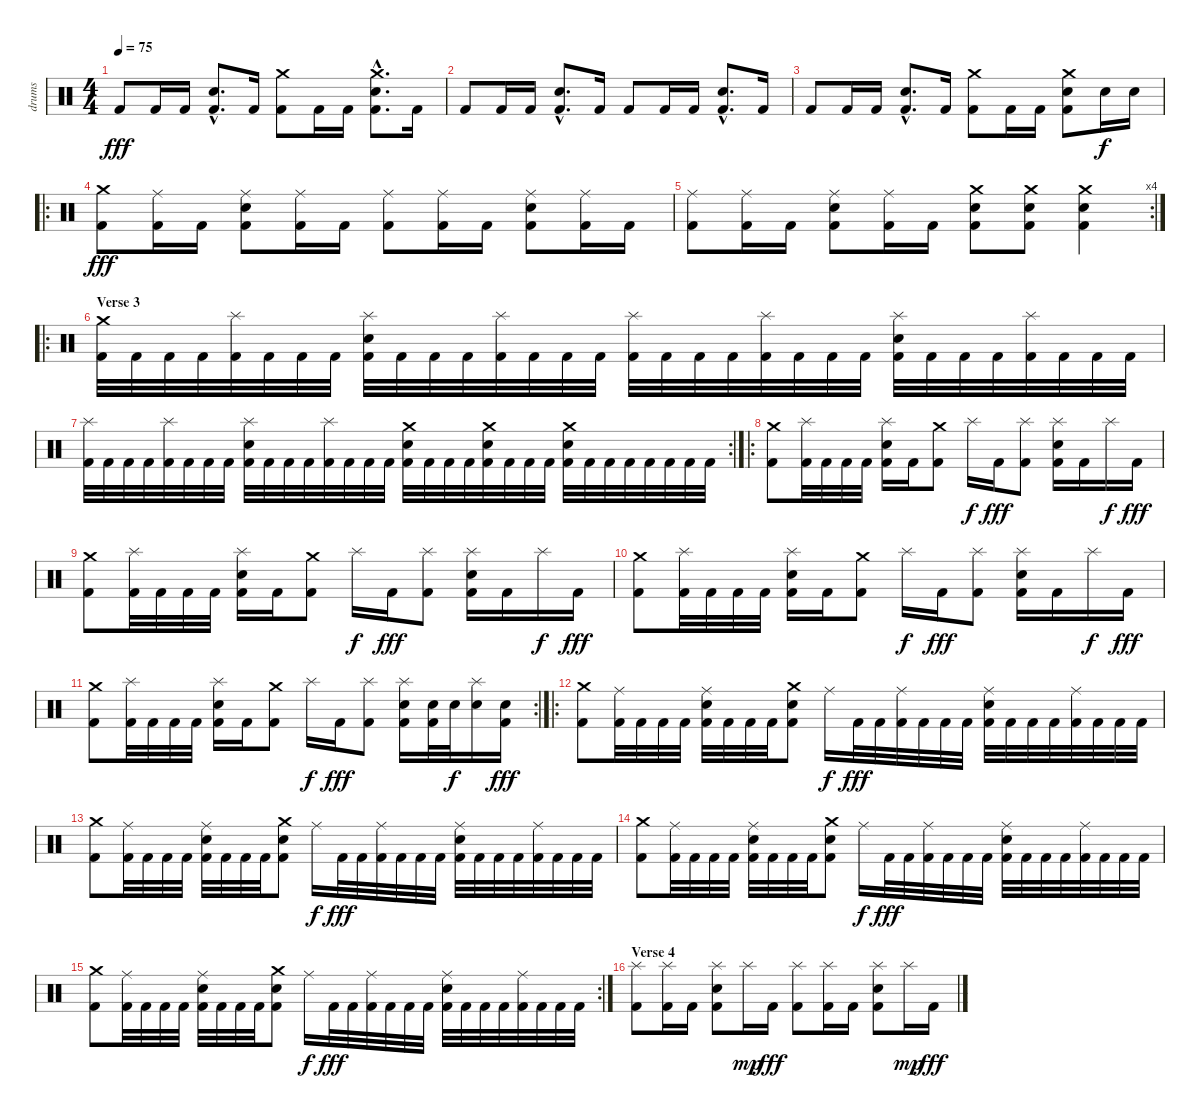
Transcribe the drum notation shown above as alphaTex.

\track ("drums" "drums") {instrument percussion}
\staff {score}
\articulation defaults
\ts (4 4)
\tempo 75
\clef neutral
\ks c "Kick (hit) 2".8{dy fff} "Kick (hit) 2".16 "Kick (hit) 2".16
("Electric Snare (hit)"{hac} "Kick (hit) 2"{hac}).8{d} "Kick (hit) 2".16 ("Crash medium (hit)" "Kick (hit) 2").8 "Kick (hit) 2".16 "Kick (hit) 2".16 ("Crash medium (hit)"{hac} "Electric Snare (hit)"{hac} "Kick (hit) 2"{hac}).8{d} "Kick (hit) 2".16 |
"Kick (hit) 2".8 "Kick (hit) 2".16 "Kick (hit) 2".16 ("Electric Snare (hit)"{hac} "Kick (hit) 2"{hac}).8{d} "Kick (hit) 2".16 "Kick (hit) 2".8 "Kick (hit) 2".16 "Kick (hit) 2".16 ("Electric Snare (hit)"{hac} "Kick (hit) 2"{hac}).8{d} "Kick (hit) 2".16 |
"Kick (hit) 2".8 "Kick (hit) 2".16 "Kick (hit) 2".16 ("Electric Snare (hit)"{hac} "Kick (hit) 2"{hac}).8{d} "Kick (hit) 2".16 ("Crash medium (hit)" "Kick (hit) 2").8 "Kick (hit) 2".16 "Kick (hit) 2".16 ("Crash medium (hit)" "Electric Snare (hit)" "Kick (hit) 2").8 "Electric Snare (hit)".16{dy f} "Electric Snare (hit)".16 |
\ro
("Crash medium (hit)" "Kick (hit) 2").8{dy fff} ("Ride (middle)" "Kick (hit) 2").16 "Kick (hit) 2".16 ("Ride (middle)" "Electric Snare (hit)" "Kick (hit) 2").8 ("Ride (middle)" "Kick (hit) 2").16 "Kick (hit) 2".16 ("Ride (middle)" "Kick (hit) 2").8 ("Ride (middle)" "Kick (hit) 2").16 "Kick (hit) 2".16 ("Ride (middle)" "Electric Snare (hit)" "Kick (hit) 2").8 ("Ride (middle)" "Kick (hit) 2").16 "Kick (hit) 2".16 |
\rc 4
("Ride (middle)" "Kick (hit) 2").8 ("Ride (middle)" "Kick (hit) 2").16 "Kick (hit) 2".16 ("Ride (middle)" "Electric Snare (hit)" "Kick (hit) 2").8 ("Ride (middle)" "Kick (hit) 2").16 "Kick (hit) 2".16 ("Crash medium (hit)" "Electric Snare (hit)" "Kick (hit) 2").8 ("Crash medium (hit)" "Electric Snare (hit)" "Kick (hit) 2").8 ("Crash medium (hit)" "Electric Snare (hit)" "Kick (hit) 2").4 |
\ro
\section ("" "Verse 3")
("Crash medium (hit)" "Kick (hit) 2").32 "Kick (hit) 2".32 "Kick (hit) 2".32 "Kick (hit) 2".32 ("Splash (hit)" "Kick (hit) 2").32 "Kick (hit) 2".32 "Kick (hit) 2".32 "Kick (hit) 2".32 ("Splash (hit)" "Electric Snare (hit)" "Kick (hit) 2").32 "Kick (hit) 2".32 "Kick (hit) 2".32 "Kick (hit) 2".32 ("Splash (hit)" "Kick (hit) 2").32 "Kick (hit) 2".32 "Kick (hit) 2".32 "Kick (hit) 2".32 ("Splash (hit)" "Kick (hit) 2").32 "Kick (hit) 2".32 "Kick (hit) 2".32 "Kick (hit) 2".32 ("Splash (hit)" "Kick (hit) 2").32 "Kick (hit) 2".32 "Kick (hit) 2".32 "Kick (hit) 2".32 ("Splash (hit)" "Electric Snare (hit)" "Kick (hit) 2").32 "Kick (hit) 2".32 "Kick (hit) 2".32 "Kick (hit) 2".32 ("Splash (hit)" "Kick (hit) 2").32 "Kick (hit) 2".32 "Kick (hit) 2".32 "Kick (hit) 2".32 |
\rc 2
("Splash (hit)" "Kick (hit) 2").32 "Kick (hit) 2".32 "Kick (hit) 2".32 "Kick (hit) 2".32 ("Splash (hit)" "Kick (hit) 2").32 "Kick (hit) 2".32 "Kick (hit) 2".32 "Kick (hit) 2".32 ("Splash (hit)" "Electric Snare (hit)" "Kick (hit) 2").32 "Kick (hit) 2".32 "Kick (hit) 2".32 "Kick (hit) 2".32 ("Splash (hit)" "Kick (hit) 2").32 "Kick (hit) 2".32 "Kick (hit) 2".32 "Kick (hit) 2".32 ("Crash medium (hit)" "Electric Snare (hit)" "Kick (hit) 2").32 "Kick (hit) 2".32 "Kick (hit) 2".32 "Kick (hit) 2".32 ("Crash medium (hit)" "Electric Snare (hit)" "Kick (hit) 2").32 "Kick (hit) 2".32 "Kick (hit) 2".32 "Kick (hit) 2".32 ("Crash medium (hit)" "Electric Snare (hit)" "Kick (hit) 2").32 "Kick (hit) 2".32 "Kick (hit) 2".32 "Kick (hit) 2".32 "Kick (hit) 2".32 "Kick (hit) 2".32 "Kick (hit) 2".32 "Kick (hit) 2".32 |
\ro
("Crash medium (hit)" "Kick (hit) 2").8 ("Splash (hit)" "Kick (hit) 2").32 "Kick (hit) 2".32 "Kick (hit) 2".32 "Kick (hit) 2".32 ("Splash (hit)" "Electric Snare (hit)" "Kick (hit) 2").16 "Kick (hit) 2".16 ("Crash medium (hit)" "Kick (hit) 2").8 "Splash (hit)".16{dy f} "Kick (hit) 2".16{dy fff} ("Splash (hit)" "Kick (hit) 2").8 ("Splash (hit)" "Electric Snare (hit)" "Kick (hit) 2").16 "Kick (hit) 2".16 "Splash (hit)".16{dy f} "Kick (hit) 2".16{dy fff} |
("Crash medium (hit)" "Kick (hit) 2").8 ("Splash (hit)" "Kick (hit) 2").32 "Kick (hit) 2".32 "Kick (hit) 2".32 "Kick (hit) 2".32 ("Splash (hit)" "Electric Snare (hit)" "Kick (hit) 2").16 "Kick (hit) 2".16 ("Crash medium (hit)" "Kick (hit) 2").8 "Splash (hit)".16{dy f} "Kick (hit) 2".16{dy fff} ("Splash (hit)" "Kick (hit) 2").8 ("Splash (hit)" "Electric Snare (hit)" "Kick (hit) 2").16 "Kick (hit) 2".16 "Splash (hit)".16{dy f} "Kick (hit) 2".16{dy fff} |
("Crash medium (hit)" "Kick (hit) 2").8 ("Splash (hit)" "Kick (hit) 2").32 "Kick (hit) 2".32 "Kick (hit) 2".32 "Kick (hit) 2".32 ("Splash (hit)" "Electric Snare (hit)" "Kick (hit) 2").16 "Kick (hit) 2".16 ("Crash medium (hit)" "Kick (hit) 2").8 "Splash (hit)".16{dy f} "Kick (hit) 2".16{dy fff} ("Splash (hit)" "Kick (hit) 2").8 ("Splash (hit)" "Electric Snare (hit)" "Kick (hit) 2").16 "Kick (hit) 2".16 "Splash (hit)".16{dy f} "Kick (hit) 2".16{dy fff} |
\rc 2
("Crash medium (hit)" "Kick (hit) 2").8 ("Splash (hit)" "Kick (hit) 2").32 "Kick (hit) 2".32 "Kick (hit) 2".32 "Kick (hit) 2".32 ("Splash (hit)" "Electric Snare (hit)" "Kick (hit) 2").16 "Kick (hit) 2".16 ("Crash medium (hit)" "Kick (hit) 2").8 "Splash (hit)".16{dy f} "Kick (hit) 2".16{dy fff} ("Splash (hit)" "Kick (hit) 2").8 ("Splash (hit)" "Electric Snare (hit)" "Kick (hit) 2").16 ("Electric Snare (hit)" "Kick (hit) 2").32 "Electric Snare (hit)".32{dy f} ("Splash (hit)" "Electric Snare (hit)").16 ("Electric Snare (hit)" "Kick (hit) 2").16{dy fff} |
\ro
("Crash medium (hit)" "Kick (hit) 2").8 ("Ride (middle)" "Kick (hit) 2").32 "Kick (hit) 2".32 "Kick (hit) 2".32 "Kick (hit) 2".32 ("Ride (middle)" "Electric Snare (hit)" "Kick (hit) 2").32 "Kick (hit) 2".32 "Kick (hit) 2".32 "Kick (hit) 2".32 ("Crash medium (hit)" "Electric Snare (hit)" "Kick (hit) 2").8 "Ride (middle)".16{dy f} "Kick (hit) 2".32{dy fff} "Kick (hit) 2".32 ("Ride (middle)" "Kick (hit) 2").32 "Kick (hit) 2".32 "Kick (hit) 2".32 "Kick (hit) 2".32 ("Ride (middle)" "Electric Snare (hit)" "Kick (hit) 2").32 "Kick (hit) 2".32 "Kick (hit) 2".32 "Kick (hit) 2".32 ("Ride (middle)" "Kick (hit) 2").32 "Kick (hit) 2".32 "Kick (hit) 2".32 "Kick (hit) 2".32 |
("Crash medium (hit)" "Kick (hit) 2").8 ("Ride (middle)" "Kick (hit) 2").32 "Kick (hit) 2".32 "Kick (hit) 2".32 "Kick (hit) 2".32 ("Ride (middle)" "Electric Snare (hit)" "Kick (hit) 2").32 "Kick (hit) 2".32 "Kick (hit) 2".32 "Kick (hit) 2".32 ("Crash medium (hit)" "Electric Snare (hit)" "Kick (hit) 2").8 "Ride (middle)".16{dy f} "Kick (hit) 2".32{dy fff} "Kick (hit) 2".32 ("Ride (middle)" "Kick (hit) 2").32 "Kick (hit) 2".32 "Kick (hit) 2".32 "Kick (hit) 2".32 ("Ride (middle)" "Electric Snare (hit)" "Kick (hit) 2").32 "Kick (hit) 2".32 "Kick (hit) 2".32 "Kick (hit) 2".32 ("Ride (middle)" "Kick (hit) 2").32 "Kick (hit) 2".32 "Kick (hit) 2".32 "Kick (hit) 2".32 |
("Crash medium (hit)" "Kick (hit) 2").8 ("Ride (middle)" "Kick (hit) 2").32 "Kick (hit) 2".32 "Kick (hit) 2".32 "Kick (hit) 2".32 ("Ride (middle)" "Electric Snare (hit)" "Kick (hit) 2").32 "Kick (hit) 2".32 "Kick (hit) 2".32 "Kick (hit) 2".32 ("Crash medium (hit)" "Electric Snare (hit)" "Kick (hit) 2").8 "Ride (middle)".16{dy f} "Kick (hit) 2".32{dy fff} "Kick (hit) 2".32 ("Ride (middle)" "Kick (hit) 2").32 "Kick (hit) 2".32 "Kick (hit) 2".32 "Kick (hit) 2".32 ("Ride (middle)" "Electric Snare (hit)" "Kick (hit) 2").32 "Kick (hit) 2".32 "Kick (hit) 2".32 "Kick (hit) 2".32 ("Ride (middle)" "Kick (hit) 2").32 "Kick (hit) 2".32 "Kick (hit) 2".32 "Kick (hit) 2".32 |
\rc 2
("Crash medium (hit)" "Kick (hit) 2").8 ("Ride (middle)" "Kick (hit) 2").32 "Kick (hit) 2".32 "Kick (hit) 2".32 "Kick (hit) 2".32 ("Ride (middle)" "Electric Snare (hit)" "Kick (hit) 2").32 "Kick (hit) 2".32 "Kick (hit) 2".32 "Kick (hit) 2".32 ("Crash medium (hit)" "Electric Snare (hit)" "Kick (hit) 2").8 "Ride (middle)".16{dy f} "Kick (hit) 2".32{dy fff} "Kick (hit) 2".32 ("Ride (middle)" "Kick (hit) 2").32 "Kick (hit) 2".32 "Kick (hit) 2".32 "Kick (hit) 2".32 ("Ride (middle)" "Electric Snare (hit)" "Kick (hit) 2").32 "Kick (hit) 2".32 "Kick (hit) 2".32 "Kick (hit) 2".32 ("Ride (middle)" "Kick (hit) 2").32 "Kick (hit) 2".32 "Kick (hit) 2".32 "Kick (hit) 2".32 |
\section ("" "Verse 4")
("Splash (hit)" "Kick (hit) 2").8 ("Splash (hit)" "Kick (hit) 2").16 "Kick (hit) 2".16 ("Splash (hit)" "Electric Snare (hit)" "Kick (hit) 2").8 "Splash (hit)".16{dy mp} "Kick (hit) 2".16{dy fff} ("Splash (hit)" "Kick (hit) 2").8 ("Splash (hit)" "Kick (hit) 2").16 "Kick (hit) 2".16 ("Splash (hit)" "Electric Snare (hit)" "Kick (hit) 2").8 "Splash (hit)".16{dy mp} "Kick (hit) 2".16{dy fff}
